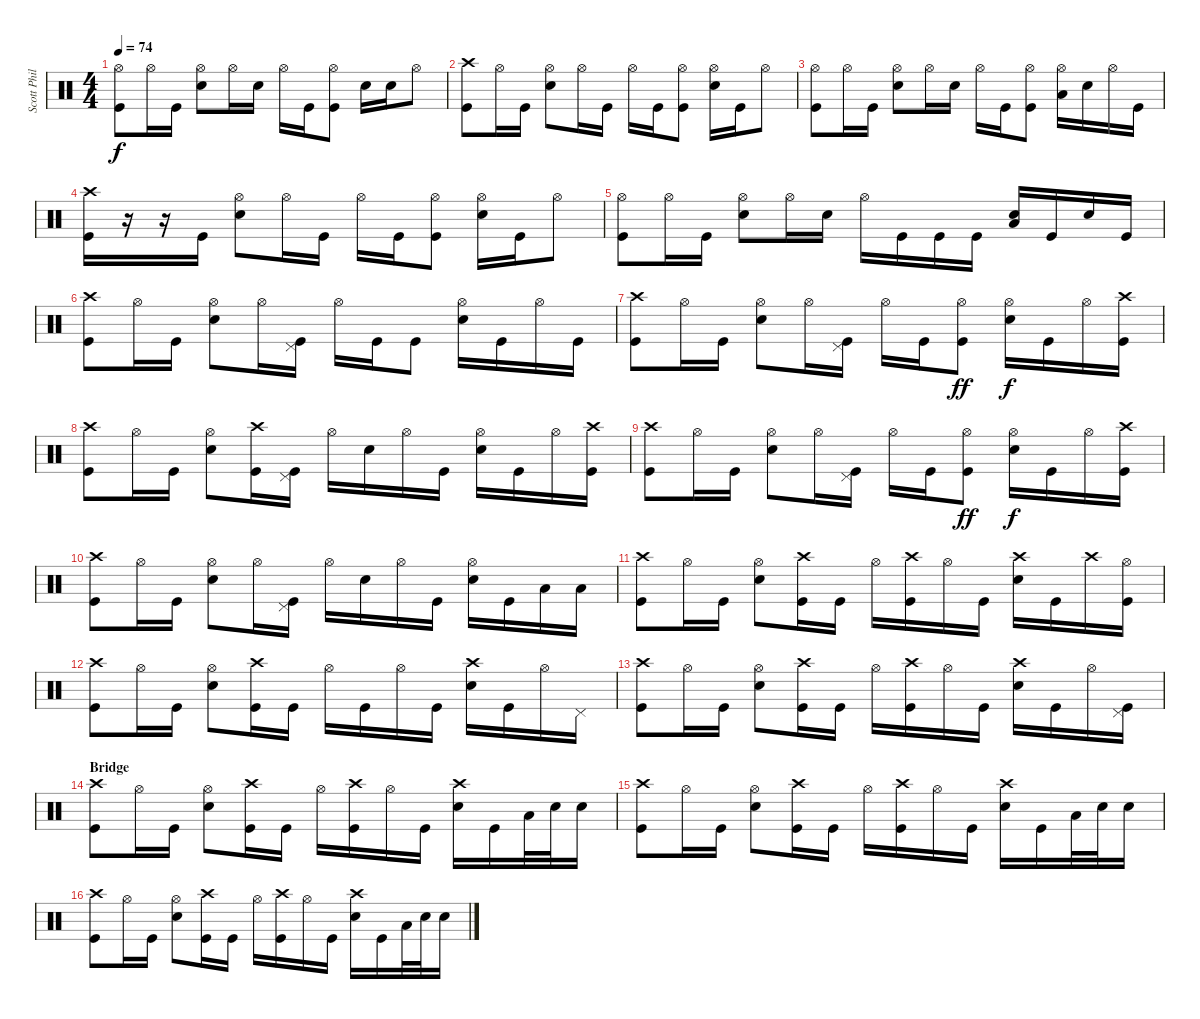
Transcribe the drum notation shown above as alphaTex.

\track ("Scott Phillips" "Scott Phil") {instrument percussion}
\staff {score}
\articulation defaults
\ts (4 4)
\tempo 74
\clef neutral
\ks c
("Hi-Hat (open)" "Kick (hit)").8{dy f} "Hi-Hat (open)".16 "Kick (hit)".16 ("Hi-Hat (open)" "Snare (hit) 2").8 "Hi-Hat (open)".16 "Snare (hit) 2".16 "Hi-Hat (open)".16 "Kick (hit)".16 ("Hi-Hat (open)" "Kick (hit)").8 "Snare (hit) 2".16 "Snare (hit) 2".16 "Hi-Hat (open)".8 |
("Crash high (hit)" "Kick (hit)").8 "Hi-Hat (open)".16 "Kick (hit)".16 ("Hi-Hat (open)" "Snare (hit) 2").8 "Hi-Hat (open)".16 "Kick (hit)".16 "Hi-Hat (open)".16 "Kick (hit)".16 ("Hi-Hat (open)" "Kick (hit)").8 ("Hi-Hat (open)" "Snare (hit) 2").16 "Kick (hit)".16 "Hi-Hat (open)".8 |
("Hi-Hat (open)" "Kick (hit)").8 "Hi-Hat (open)".16 "Kick (hit)".16 ("Hi-Hat (open)" "Snare (hit) 2").8 "Hi-Hat (open)".16 "Snare (hit) 2".16 "Hi-Hat (open)".16 "Kick (hit)".16 ("Hi-Hat (open)" "Kick (hit)").8 ("Hi-Hat (open)" "Low Tom (hit)").16 "Snare (hit) 2".16 "Hi-Hat (open)".16 "Kick (hit)".16 |
("Crash high (hit)" "Kick (hit)").16 r.16 r.16 "Kick (hit)".16 ("Hi-Hat (open)" "Snare (hit) 2").8 "Hi-Hat (open)".16 "Kick (hit)".16 "Hi-Hat (open)".16 "Kick (hit)".16 ("Hi-Hat (open)" "Kick (hit)").8 ("Hi-Hat (open)" "Snare (hit) 2").16 "Kick (hit)".16 "Hi-Hat (open)".8 |
("Hi-Hat (open)" "Kick (hit)").8 "Hi-Hat (open)".16 "Kick (hit)".16 ("Hi-Hat (open)" "Snare (hit) 2").8 "Hi-Hat (open)".16 "Snare (hit) 2".16 "Hi-Hat (open)".16 "Kick (hit)".16 "Kick (hit)".16 "Kick (hit)".16 ("Low Tom (hit)" "Snare (hit) 2").16 "Kick (hit)".16 "Snare (hit) 2".16 "Kick (hit)".16 |
("Crash high (hit)" "Kick (hit)").8 "Hi-Hat (open)".16 "Kick (hit)".16 ("Hi-Hat (open)" "Snare (hit) 2").8 "Hi-Hat (open)".16 ("Pedal Hi-Hat (hit)" "Kick (hit)").16 "Hi-Hat (open)".16 "Kick (hit)".16 "Kick (hit)".8 ("Hi-Hat (open)" "Snare (hit) 2").16 "Kick (hit)".16 "Hi-Hat (open)".16 "Kick (hit)".16 |
("Crash high (hit)" "Kick (hit)").8 "Hi-Hat (open)".16 "Kick (hit)".16 ("Hi-Hat (open)" "Snare (hit) 2").8 "Hi-Hat (open)".16 ("Pedal Hi-Hat (hit)" "Kick (hit)").16 "Hi-Hat (open)".16 "Kick (hit)".16 ("Hi-Hat (open)" "Kick (hit)").8{dy ff} ("Hi-Hat (open)" "Snare (hit) 2").16{dy f} "Kick (hit)".16 "Hi-Hat (open)".16 ("Crash high (hit)" "Kick (hit)").16 |
("Crash high (hit)" "Kick (hit)").8 "Hi-Hat (open)".16 "Kick (hit)".16 ("Hi-Hat (open)" "Snare (hit) 2").8 ("Crash high (hit)" "Kick (hit)").16 ("Pedal Hi-Hat (hit)" "Kick (hit)").16 "Hi-Hat (open)".16 "Snare (hit) 2".16 "Hi-Hat (open)".16 "Kick (hit)".16 ("Hi-Hat (open)" "Snare (hit) 2").16 "Kick (hit)".16 "Hi-Hat (open)".16 ("Crash high (hit)" "Kick (hit)").16 |
("Crash high (hit)" "Kick (hit)").8 "Hi-Hat (open)".16 "Kick (hit)".16 ("Hi-Hat (open)" "Snare (hit) 2").8 "Hi-Hat (open)".16 ("Pedal Hi-Hat (hit)" "Kick (hit)").16 "Hi-Hat (open)".16 "Kick (hit)".16 ("Hi-Hat (open)" "Kick (hit)").8{dy ff} ("Hi-Hat (open)" "Snare (hit) 2").16{dy f} "Kick (hit)".16 "Hi-Hat (open)".16 ("Crash high (hit)" "Kick (hit)").16 |
("Crash high (hit)" "Kick (hit)").8 "Hi-Hat (open)".16 "Kick (hit)".16 ("Hi-Hat (open)" "Snare (hit) 2").8 "Hi-Hat (open)".16 ("Pedal Hi-Hat (hit)" "Kick (hit)").16 "Hi-Hat (open)".16 "Snare (hit) 2".16 "Hi-Hat (open)".16 "Kick (hit)".16 ("Hi-Hat (open)" "Snare (hit) 2").16 "Kick (hit)".16 "Low Tom (hit)".16 "Low Tom (hit)".16 |
("Crash high (hit)" "Kick (hit)").8 "Hi-Hat (open)".16 "Kick (hit)".16 ("Hi-Hat (open)" "Snare (hit) 2").8 ("Crash high (hit)" "Kick (hit)").16 "Kick (hit)".16 "Hi-Hat (open)".16 ("Crash high (hit)" "Kick (hit)").16 "Hi-Hat (open)".16 "Kick (hit)".16 ("Crash high (hit)" "Snare (hit) 2").16 "Kick (hit)".16 "Crash high (hit)".16 ("Hi-Hat (open)" "Kick (hit)").16 |
("Crash high (hit)" "Kick (hit)").8 "Hi-Hat (open)".16 "Kick (hit)".16 ("Hi-Hat (open)" "Snare (hit) 2").8 ("Crash high (hit)" "Kick (hit)").16 "Kick (hit)".16 "Hi-Hat (open)".16 "Kick (hit)".16 "Hi-Hat (open)".16 "Kick (hit)".16 ("Crash high (hit)" "Snare (hit) 2").16 "Kick (hit)".16 "Hi-Hat (open)".16 "Pedal Hi-Hat (hit)".16 |
("Crash high (hit)" "Kick (hit)").8 "Hi-Hat (open)".16 "Kick (hit)".16 ("Hi-Hat (open)" "Snare (hit) 2").8 ("Crash high (hit)" "Kick (hit)").16 "Kick (hit)".16 "Hi-Hat (open)".16 ("Crash high (hit)" "Kick (hit)").16 "Hi-Hat (open)".16 "Kick (hit)".16 ("Crash high (hit)" "Snare (hit) 2").16 "Kick (hit)".16 "Hi-Hat (open)".16 ("Pedal Hi-Hat (hit)" "Kick (hit)").16 |
\section ("" "Bridge")
("Crash high (hit)" "Kick (hit)").8 "Hi-Hat (open)".16 "Kick (hit)".16 ("Hi-Hat (open)" "Snare (hit) 2").8 ("Crash high (hit)" "Kick (hit)").16 "Kick (hit)".16 "Hi-Hat (open)".16 ("Crash high (hit)" "Kick (hit)").16 "Hi-Hat (open)".16 "Kick (hit)".16 ("Crash high (hit)" "Snare (hit) 2").16 "Kick (hit)".16 "Low Tom (hit)".32 "Snare (hit) 2".32 "Snare (hit) 2".16 |
("Crash high (hit)" "Kick (hit)").8 "Hi-Hat (open)".16 "Kick (hit)".16 ("Hi-Hat (open)" "Snare (hit) 2").8 ("Crash high (hit)" "Kick (hit)").16 "Kick (hit)".16 "Hi-Hat (open)".16 ("Crash high (hit)" "Kick (hit)").16 "Hi-Hat (open)".16 "Kick (hit)".16 ("Crash high (hit)" "Snare (hit) 2").16 "Kick (hit)".16 "Low Tom (hit)".32 "Snare (hit) 2".32 "Snare (hit) 2".16 |
("Crash high (hit)" "Kick (hit)").8 "Hi-Hat (open)".16 "Kick (hit)".16 ("Hi-Hat (open)" "Snare (hit) 2").8 ("Crash high (hit)" "Kick (hit)").16 "Kick (hit)".16 "Hi-Hat (open)".16 ("Crash high (hit)" "Kick (hit)").16 "Hi-Hat (open)".16 "Kick (hit)".16 ("Crash high (hit)" "Snare (hit) 2").16 "Kick (hit)".16 "Low Tom (hit)".32 "Snare (hit) 2".32 "Snare (hit) 2".16
